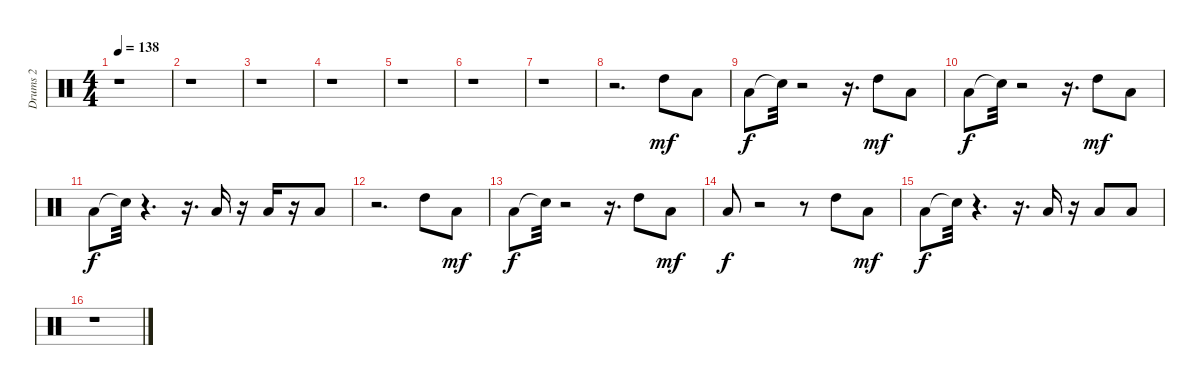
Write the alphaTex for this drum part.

\track ("Drums 2" "Drums 2") {instrument percussion}
\staff {score}
\articulation defaults
\ts (4 4)
\tempo 138
\clef neutral
\ks c
r.1{dy f} |
r.1 |
r.1 |
r.1 |
r.1 |
r.1 |
r.1 |
r.2{d} "High Tom (hit)".8{dy mf} "Low Tom (hit)".8 |
"Low Floor Tom (hit)".8{dy f} "Snare (hit)"{t}.32 r.2 r.16{d} "High Tom (hit)".8{dy mf} "Low Tom (hit)".8 |
"Low Floor Tom (hit)".8{dy f} "Snare (hit)"{t}.32 r.2 r.16{d} "High Tom (hit)".8{dy mf} "Low Tom (hit)".8 |
"Low Floor Tom (hit)".8{dy f} "Snare (hit)"{t}.32 r.4{d} r.16{d} "Low Floor Tom (hit)".16 r.16 "Low Floor Tom (hit)".16 r.16 "Low Tom (hit)".8 |
r.2{d} "High Tom (hit)".8 "Low Tom (hit)".8{dy mf} |
"Low Floor Tom (hit)".8{dy f} "Snare (hit)"{t}.32 r.2 r.16{d} "High Tom (hit)".8 "Low Tom (hit)".8{dy mf} |
"Low Floor Tom (hit)".8{dy f} r.2 r.8 "High Tom (hit)".8 "Low Tom (hit)".8{dy mf} |
"Low Floor Tom (hit)".8{dy f} "Snare (hit)"{t}.32 r.4{d} r.16{d} "Low Floor Tom (hit)".16 r.16 "Low Floor Tom (hit)".8 "Low Tom (hit)".8 |
r.1
